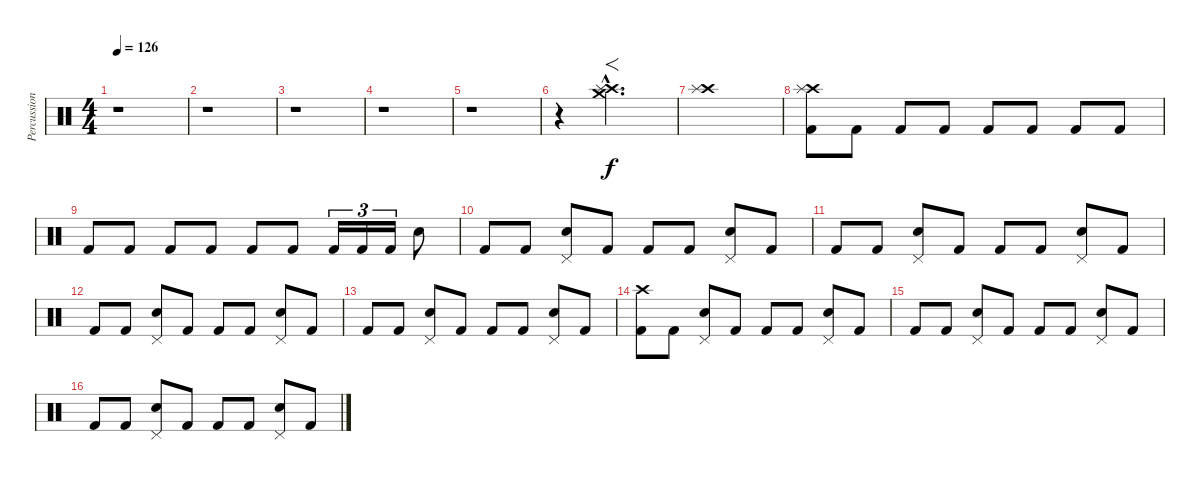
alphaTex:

\track ("Percussion" "Percussion") {instrument percussion}
\staff {score}
\articulation defaults
\ts (4 4)
\tempo 126
\clef neutral
\ks c
r.1{dy f} |
r.1 |
r.1 |
r.1 |
r.1 |
r.4 ("Crash high (hit)"{hac} "Splash (hit)"{hac} "Crash medium (hit)"{hac}).2{f d} |
("Crash high (hit)" "Splash (hit)").1 |
("Crash high (hit)" "Splash (hit)" "Kick (hit) 2").8 "Kick (hit) 2".8 "Kick (hit) 2".8 "Kick (hit) 2".8 "Kick (hit) 2".8 "Kick (hit) 2".8 "Kick (hit) 2".8 "Kick (hit) 2".8 |
"Kick (hit) 2".8 "Kick (hit) 2".8 "Kick (hit) 2".8 "Kick (hit) 2".8 "Kick (hit) 2".8 "Kick (hit) 2".8 "Kick (hit) 2".16{tu (3 2)} "Kick (hit) 2".16{tu (3 2)} "Kick (hit) 2".16{tu (3 2)} "Electric Snare (hit)".8 |
"Kick (hit) 2".8 "Kick (hit) 2".8 ("Pedal Hi-Hat (hit)" "Electric Snare (hit)").8 "Kick (hit) 2".8 "Kick (hit) 2".8 "Kick (hit) 2".8 ("Pedal Hi-Hat (hit)" "Electric Snare (hit)").8 "Kick (hit) 2".8 |
"Kick (hit) 2".8 "Kick (hit) 2".8 ("Pedal Hi-Hat (hit)" "Electric Snare (hit)").8 "Kick (hit) 2".8 "Kick (hit) 2".8 "Kick (hit) 2".8 ("Pedal Hi-Hat (hit)" "Electric Snare (hit)").8 "Kick (hit) 2".8 |
"Kick (hit) 2".8 "Kick (hit) 2".8 ("Pedal Hi-Hat (hit)" "Electric Snare (hit)").8 "Kick (hit) 2".8 "Kick (hit) 2".8 "Kick (hit) 2".8 ("Pedal Hi-Hat (hit)" "Electric Snare (hit)").8 "Kick (hit) 2".8 |
"Kick (hit) 2".8 "Kick (hit) 2".8 ("Pedal Hi-Hat (hit)" "Electric Snare (hit)").8 "Kick (hit) 2".8 "Kick (hit) 2".8 "Kick (hit) 2".8 ("Pedal Hi-Hat (hit)" "Electric Snare (hit)").8 "Kick (hit) 2".8 |
("Crash high (hit)" "Kick (hit) 2").8 "Kick (hit) 2".8 ("Pedal Hi-Hat (hit)" "Electric Snare (hit)").8 "Kick (hit) 2".8 "Kick (hit) 2".8 "Kick (hit) 2".8 ("Pedal Hi-Hat (hit)" "Electric Snare (hit)").8 "Kick (hit) 2".8 |
"Kick (hit) 2".8 "Kick (hit) 2".8 ("Pedal Hi-Hat (hit)" "Electric Snare (hit)").8 "Kick (hit) 2".8 "Kick (hit) 2".8 "Kick (hit) 2".8 ("Pedal Hi-Hat (hit)" "Electric Snare (hit)").8 "Kick (hit) 2".8 |
"Kick (hit) 2".8 "Kick (hit) 2".8 ("Pedal Hi-Hat (hit)" "Electric Snare (hit)").8 "Kick (hit) 2".8 "Kick (hit) 2".8 "Kick (hit) 2".8 ("Pedal Hi-Hat (hit)" "Electric Snare (hit)").8 "Kick (hit) 2".8
